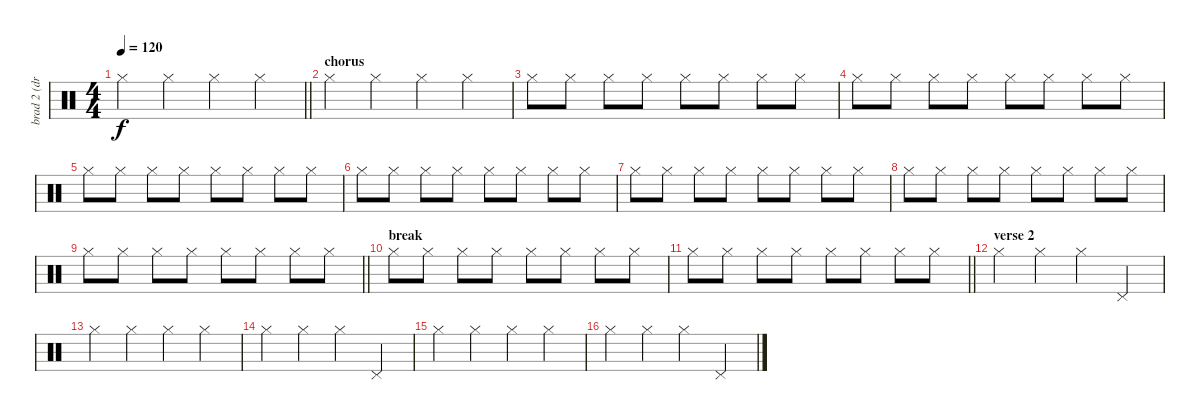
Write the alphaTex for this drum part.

\track ("brad 2 (drums hit hat)" "brad 2 (dr") {instrument percussion}
\staff {score}
\articulation defaults
\ts (4 4)
\tempo 120
\clef neutral
\barLineRight lightlight
\ks c "Hi-Hat (closed)".4{dy f} "Hi-Hat (closed)".4 "Hi-Hat (closed)".4 "Hi-Hat (closed)".4
|
\section ("" "chorus")
"Hi-Hat (closed)".4 "Hi-Hat (closed)".4 "Hi-Hat (closed)".4 "Hi-Hat (closed)".4 |
"Hi-Hat (closed)".8 "Hi-Hat (closed)".8 "Hi-Hat (closed)".8 "Hi-Hat (closed)".8 "Hi-Hat (closed)".8 "Hi-Hat (closed)".8 "Hi-Hat (closed)".8 "Hi-Hat (closed)".8 |
"Hi-Hat (closed)".8 "Hi-Hat (closed)".8 "Hi-Hat (closed)".8 "Hi-Hat (closed)".8 "Hi-Hat (closed)".8 "Hi-Hat (closed)".8 "Hi-Hat (closed)".8 "Hi-Hat (closed)".8 |
"Hi-Hat (closed)".8 "Hi-Hat (closed)".8 "Hi-Hat (closed)".8 "Hi-Hat (closed)".8 "Hi-Hat (closed)".8 "Hi-Hat (closed)".8 "Hi-Hat (closed)".8 "Hi-Hat (closed)".8 |
"Hi-Hat (closed)".8 "Hi-Hat (closed)".8 "Hi-Hat (closed)".8 "Hi-Hat (closed)".8 "Hi-Hat (closed)".8 "Hi-Hat (closed)".8 "Hi-Hat (closed)".8 "Hi-Hat (closed)".8 |
"Hi-Hat (closed)".8 "Hi-Hat (closed)".8 "Hi-Hat (closed)".8 "Hi-Hat (closed)".8 "Hi-Hat (closed)".8 "Hi-Hat (closed)".8 "Hi-Hat (closed)".8 "Hi-Hat (closed)".8 |
"Hi-Hat (closed)".8 "Hi-Hat (closed)".8 "Hi-Hat (closed)".8 "Hi-Hat (closed)".8 "Hi-Hat (closed)".8 "Hi-Hat (closed)".8 "Hi-Hat (closed)".8 "Hi-Hat (closed)".8 |
\barLineRight lightlight "Hi-Hat (closed)".8 "Hi-Hat (closed)".8 "Hi-Hat (closed)".8 "Hi-Hat (closed)".8 "Hi-Hat (closed)".8 "Hi-Hat (closed)".8 "Hi-Hat (closed)".8 "Hi-Hat (closed)".8
|
\section ("" "break")
"Hi-Hat (closed)".8 "Hi-Hat (closed)".8 "Hi-Hat (closed)".8 "Hi-Hat (closed)".8 "Hi-Hat (closed)".8 "Hi-Hat (closed)".8 "Hi-Hat (closed)".8 "Hi-Hat (closed)".8 |
\barLineRight lightlight "Hi-Hat (closed)".8 "Hi-Hat (closed)".8 "Hi-Hat (closed)".8 "Hi-Hat (closed)".8 "Hi-Hat (closed)".8 "Hi-Hat (closed)".8 "Hi-Hat (closed)".8 "Hi-Hat (closed)".8
|
\section ("" "verse 2")
"Hi-Hat (closed)".4 "Hi-Hat (closed)".4 "Hi-Hat (closed)".4 "Pedal Hi-Hat (hit)".4 |
"Hi-Hat (closed)".4 "Hi-Hat (closed)".4 "Hi-Hat (closed)".4 "Hi-Hat (closed)".4 |
"Hi-Hat (closed)".4 "Hi-Hat (closed)".4 "Hi-Hat (closed)".4 "Pedal Hi-Hat (hit)".4 |
"Hi-Hat (closed)".4 "Hi-Hat (closed)".4 "Hi-Hat (closed)".4 "Hi-Hat (closed)".4 |
"Hi-Hat (closed)".4 "Hi-Hat (closed)".4 "Hi-Hat (closed)".4 "Pedal Hi-Hat (hit)".4
